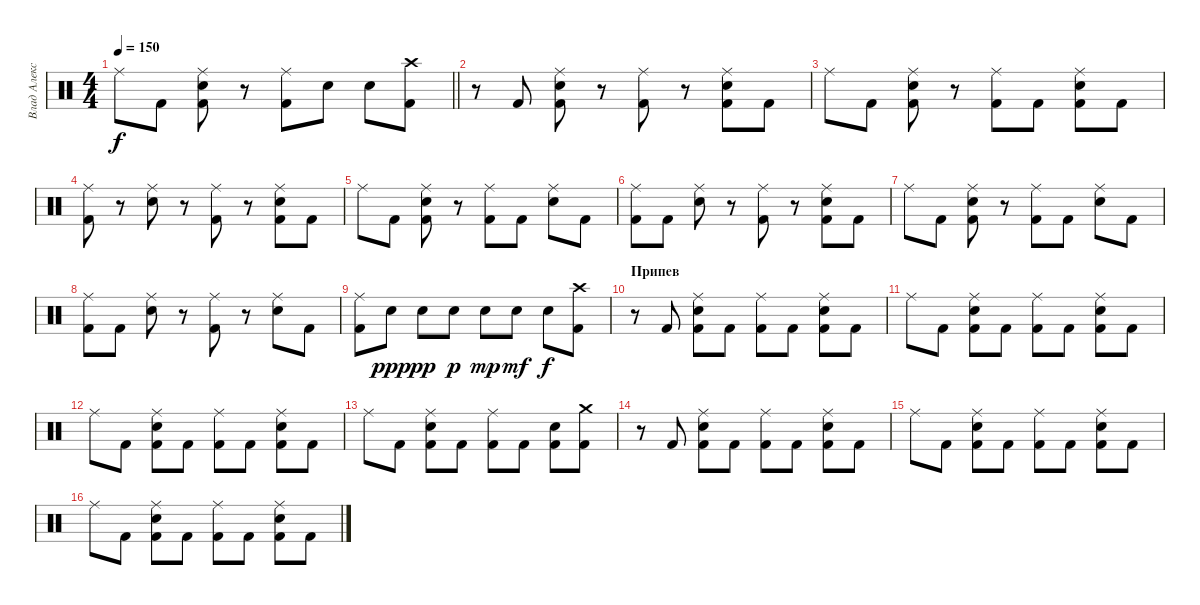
\track ("Влад Алексеенко" "Влад Алекс") {instrument percussion}
\staff {score}
\articulation defaults
\ts (4 4)
\tempo 150
\clef neutral
\barLineRight lightlight
\ks c "Ride (middle)".8{dy f} "Kick (hit) 2".8
("Ride (middle)" "Electric Snare (hit)" "Kick (hit) 2").8 r.8 ("Ride (middle)" "Kick (hit) 2").8 "Electric Snare (hit)".8 "Electric Snare (hit)".8 ("Crash high (hit)" "Kick (hit) 2").8 |
r.8 "Kick (hit) 2".8 ("Ride (middle)" "Electric Snare (hit)" "Kick (hit) 2").8 r.8 ("Ride (middle)" "Kick (hit) 2").8 r.8 ("Ride (middle)" "Electric Snare (hit)" "Kick (hit) 2").8 "Kick (hit) 2".8 |
"Ride (middle)".8 "Kick (hit) 2".8 ("Ride (middle)" "Electric Snare (hit)" "Kick (hit) 2").8 r.8 ("Ride (middle)" "Kick (hit) 2").8 "Kick (hit) 2".8 ("Ride (middle)" "Electric Snare (hit)" "Kick (hit) 2").8 "Kick (hit) 2".8 |
("Ride (middle)" "Kick (hit) 2").8 r.8 ("Ride (middle)" "Electric Snare (hit)").8 r.8 ("Ride (middle)" "Kick (hit) 2").8 r.8 ("Ride (middle)" "Electric Snare (hit)" "Kick (hit) 2").8 "Kick (hit) 2".8 |
"Ride (middle)".8 "Kick (hit) 2".8 ("Ride (middle)" "Electric Snare (hit)" "Kick (hit) 2").8 r.8 ("Ride (middle)" "Kick (hit) 2").8 "Kick (hit) 2".8 ("Ride (middle)" "Electric Snare (hit)").8 "Kick (hit) 2".8 |
("Ride (middle)" "Kick (hit) 2").8 "Kick (hit) 2".8 ("Ride (middle)" "Electric Snare (hit)").8 r.8 ("Ride (middle)" "Kick (hit) 2").8 r.8 ("Ride (middle)" "Electric Snare (hit)" "Kick (hit) 2").8 "Kick (hit) 2".8 |
"Ride (middle)".8 "Kick (hit) 2".8 ("Ride (middle)" "Electric Snare (hit)" "Kick (hit) 2").8 r.8 ("Ride (middle)" "Kick (hit) 2").8 "Kick (hit) 2".8 ("Ride (middle)" "Electric Snare (hit)").8 "Kick (hit) 2".8 |
("Ride (middle)" "Kick (hit) 2").8 "Kick (hit) 2".8 ("Ride (middle)" "Electric Snare (hit)").8 r.8 ("Ride (middle)" "Kick (hit) 2").8 r.8 ("Ride (middle)" "Electric Snare (hit)").8 "Kick (hit) 2".8 |
("Ride (middle)" "Kick (hit) 2").8 "Electric Snare (hit)".8{dy ppp} "Electric Snare (hit)".8{dy pp} "Electric Snare (hit)".8{dy p} "Electric Snare (hit)".8{dy mp} "Electric Snare (hit)".8{dy mf} "Electric Snare (hit)".8{dy f} ("Crash high (hit)" "Kick (hit) 2").8 |
\section ("" "Припев")
r.8 "Kick (hit) 2".8 ("Ride (middle)" "Electric Snare (hit)" "Kick (hit) 2").8 "Kick (hit) 2".8 ("Ride (middle)" "Kick (hit) 2").8 "Kick (hit) 2".8 ("Ride (middle)" "Electric Snare (hit)" "Kick (hit) 2").8 "Kick (hit) 2".8 |
"Ride (middle)".8 "Kick (hit) 2".8 ("Ride (middle)" "Electric Snare (hit)" "Kick (hit) 2").8 "Kick (hit) 2".8 ("Ride (middle)" "Kick (hit) 2").8 "Kick (hit) 2".8 ("Ride (middle)" "Electric Snare (hit)" "Kick (hit) 2").8 "Kick (hit) 2".8 |
"Ride (middle)".8 "Kick (hit) 2".8 ("Ride (middle)" "Electric Snare (hit)" "Kick (hit) 2").8 "Kick (hit) 2".8 ("Ride (middle)" "Kick (hit) 2").8 "Kick (hit) 2".8 ("Ride (middle)" "Electric Snare (hit)" "Kick (hit) 2").8 "Kick (hit) 2".8 |
"Ride (middle)".8 "Kick (hit) 2".8 ("Ride (middle)" "Electric Snare (hit)" "Kick (hit) 2").8 "Kick (hit) 2".8 ("Ride (middle)" "Kick (hit) 2").8 "Kick (hit) 2".8 ("Electric Snare (hit)" "Kick (hit) 2").8 ("Crash medium (hit)" "Kick (hit) 2").8 |
r.8 "Kick (hit) 2".8 ("Ride (middle)" "Electric Snare (hit)" "Kick (hit) 2").8 "Kick (hit) 2".8 ("Ride (middle)" "Kick (hit) 2").8 "Kick (hit) 2".8 ("Ride (middle)" "Electric Snare (hit)" "Kick (hit) 2").8 "Kick (hit) 2".8 |
"Ride (middle)".8 "Kick (hit) 2".8 ("Ride (middle)" "Electric Snare (hit)" "Kick (hit) 2").8 "Kick (hit) 2".8 ("Ride (middle)" "Kick (hit) 2").8 "Kick (hit) 2".8 ("Ride (middle)" "Electric Snare (hit)" "Kick (hit) 2").8 "Kick (hit) 2".8 |
"Ride (middle)".8 "Kick (hit) 2".8 ("Ride (middle)" "Electric Snare (hit)" "Kick (hit) 2").8 "Kick (hit) 2".8 ("Ride (middle)" "Kick (hit) 2").8 "Kick (hit) 2".8 ("Ride (middle)" "Electric Snare (hit)" "Kick (hit) 2").8 "Kick (hit) 2".8
